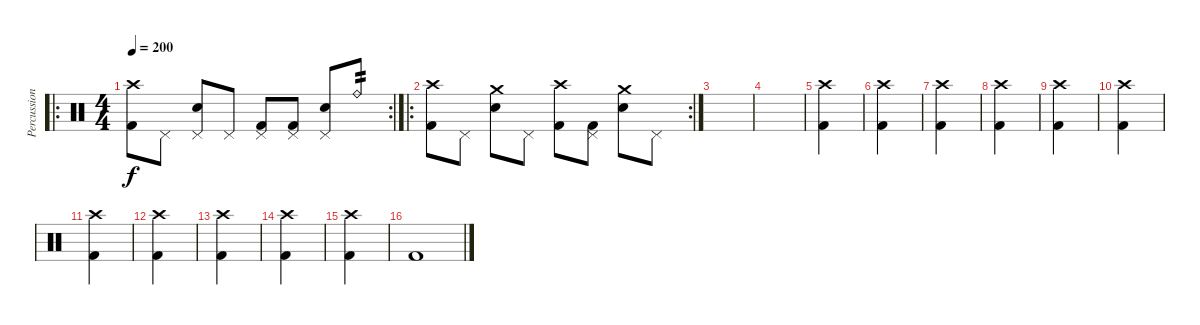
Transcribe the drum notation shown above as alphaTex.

\track ("Percussions" "Percussion") {instrument percussion}
\staff {score}
\articulation defaults
\ro
\rc 2
\ts (4 4)
\tempo 200
\clef neutral
\ks c
("Crash high (hit)" "Kick (hit) 2").8{dy f} "Pedal Hi-Hat (hit)".8 ("Pedal Hi-Hat (hit)" "Snare (hit) 2").8 "Pedal Hi-Hat (hit)".8 ("Pedal Hi-Hat (hit)" "Kick (hit) 2").8 ("Pedal Hi-Hat (hit)" "Kick (hit) 2").8 ("Pedal Hi-Hat (hit)" "Snare (hit) 2").8 "Ride (bell)".8{tp 2} |
\ro
\rc 2
("Crash high (hit)" "Kick (hit) 2").8 "Pedal Hi-Hat (hit)".8 ("Crash medium (hit)" "Snare (hit) 2").8 "Pedal Hi-Hat (hit)".8 ("Crash high (hit)" "Kick (hit) 2").8 ("Pedal Hi-Hat (hit)" "Kick (hit) 2").8 ("Crash medium (hit)" "Snare (hit) 2").8 "Pedal Hi-Hat (hit)".8 |
|
|
("Crash high (hit)" "Kick (hit) 2").4 |
("Crash high (hit)" "Kick (hit) 2").4 |
("Crash high (hit)" "Kick (hit) 2").4 |
("Crash high (hit)" "Kick (hit) 2").4 |
("Crash high (hit)" "Kick (hit) 2").4 |
("Crash high (hit)" "Kick (hit) 2").4 |
("Crash high (hit)" "Kick (hit) 2").4 |
("Crash high (hit)" "Kick (hit) 2").4 |
("Crash high (hit)" "Kick (hit) 2").4 |
("Crash high (hit)" "Kick (hit) 2").4 |
("Crash high (hit)" "Kick (hit) 2").4 |
"Kick (hit) 2".1
